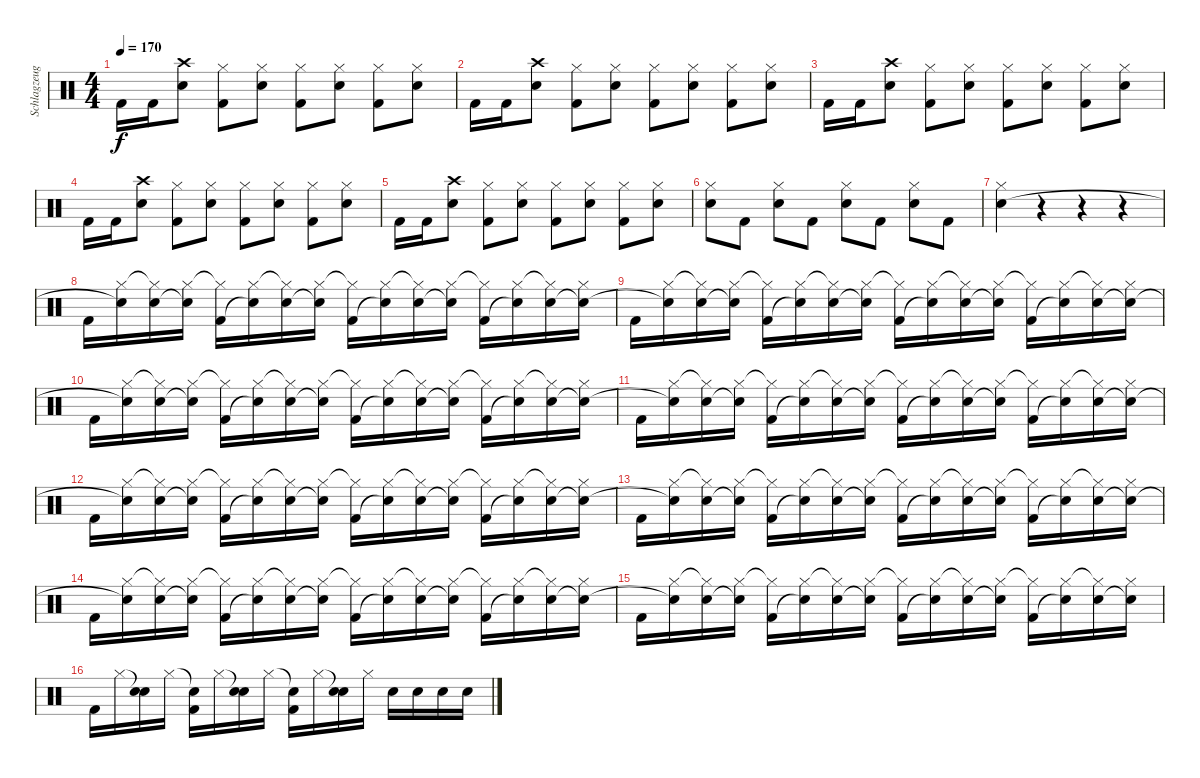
\track ("Schlagzeug (Bela)" "Schlagzeug") {instrument percussion}
\staff {score}
\articulation defaults
\ts (4 4)
\tempo 170
\clef neutral
\ks c "Kick (hit) 2".16{dy f} "Kick (hit) 2".16
("Snare (hit) 2" "Crash high (hit)").8 ("Hi-Hat (closed)" "Kick (hit) 2").8 ("Hi-Hat (closed)" "Snare (hit) 2").8 ("Hi-Hat (closed)" "Kick (hit) 2").8 ("Hi-Hat (closed)" "Snare (hit) 2").8 ("Hi-Hat (closed)" "Kick (hit) 2").8 ("Hi-Hat (closed)" "Snare (hit) 2").8 |
"Kick (hit) 2".16 "Kick (hit) 2".16 ("Snare (hit) 2" "Crash high (hit)").8 ("Hi-Hat (closed)" "Kick (hit) 2").8 ("Hi-Hat (closed)" "Snare (hit) 2").8 ("Hi-Hat (closed)" "Kick (hit) 2").8 ("Hi-Hat (closed)" "Snare (hit) 2").8 ("Hi-Hat (closed)" "Kick (hit) 2").8 ("Hi-Hat (closed)" "Snare (hit) 2").8 |
"Kick (hit) 2".16 "Kick (hit) 2".16 ("Snare (hit) 2" "Crash high (hit)").8 ("Hi-Hat (closed)" "Kick (hit) 2").8 ("Hi-Hat (closed)" "Snare (hit) 2").8 ("Hi-Hat (closed)" "Kick (hit) 2").8 ("Hi-Hat (closed)" "Snare (hit) 2").8 ("Hi-Hat (closed)" "Kick (hit) 2").8 ("Hi-Hat (closed)" "Snare (hit) 2").8 |
"Kick (hit) 2".16 "Kick (hit) 2".16 ("Snare (hit) 2" "Crash high (hit)").8 ("Hi-Hat (closed)" "Kick (hit) 2").8 ("Hi-Hat (closed)" "Snare (hit) 2").8 ("Hi-Hat (closed)" "Kick (hit) 2").8 ("Hi-Hat (closed)" "Snare (hit) 2").8 ("Hi-Hat (closed)" "Kick (hit) 2").8 ("Hi-Hat (closed)" "Snare (hit) 2").8 |
"Kick (hit) 2".16 "Kick (hit) 2".16 ("Snare (hit) 2" "Crash high (hit)").8 ("Hi-Hat (closed)" "Kick (hit) 2").8 ("Hi-Hat (closed)" "Snare (hit) 2").8 ("Hi-Hat (closed)" "Kick (hit) 2").8 ("Hi-Hat (closed)" "Snare (hit) 2").8 ("Hi-Hat (closed)" "Kick (hit) 2").8 ("Hi-Hat (closed)" "Snare (hit) 2").8 |
("Hi-Hat (closed)" "Snare (hit) 2").8 "Kick (hit) 2".8 ("Hi-Hat (closed)" "Snare (hit) 2").8 "Kick (hit) 2".8 ("Hi-Hat (closed)" "Snare (hit) 2").8 "Kick (hit) 2".8 ("Hi-Hat (closed)" "Snare (hit) 2").8 "Kick (hit) 2".8 |
("Hi-Hat (closed)" "Snare (hit) 2").4 r.4 r.4 r.4 |
"Kick (hit) 2".16 ("Hi-Hat (closed)" "Snare (hit)"{t}).16 ("Hi-Hat (closed)"{t} "Snare (hit) 2").16 ("Hi-Hat (closed)" "Snare (hit)"{t}).16 ("Hi-Hat (closed)"{t} "Kick (hit) 2").16 ("Hi-Hat (closed)" "Snare (hit)"{t}).16 ("Hi-Hat (closed)"{t} "Snare (hit) 2").16 ("Hi-Hat (closed)" "Snare (hit)"{t}).16 ("Hi-Hat (closed)"{t} "Kick (hit) 2").16 ("Hi-Hat (closed)" "Snare (hit)"{t}).16 ("Hi-Hat (closed)"{t} "Snare (hit) 2").16 ("Hi-Hat (closed)" "Snare (hit)"{t}).16 ("Hi-Hat (closed)"{t} "Kick (hit) 2").16 ("Hi-Hat (closed)" "Snare (hit)"{t}).16 ("Hi-Hat (closed)"{t} "Snare (hit) 2").16 ("Hi-Hat (closed)" "Snare (hit)"{t}).16 |
"Kick (hit) 2".16 ("Hi-Hat (closed)" "Snare (hit)"{t}).16 ("Hi-Hat (closed)"{t} "Snare (hit) 2").16 ("Hi-Hat (closed)" "Snare (hit)"{t}).16 ("Hi-Hat (closed)"{t} "Kick (hit) 2").16 ("Hi-Hat (closed)" "Snare (hit)"{t}).16 ("Hi-Hat (closed)"{t} "Snare (hit) 2").16 ("Hi-Hat (closed)" "Snare (hit)"{t}).16 ("Hi-Hat (closed)"{t} "Kick (hit) 2").16 ("Hi-Hat (closed)" "Snare (hit)"{t}).16 ("Hi-Hat (closed)"{t} "Snare (hit) 2").16 ("Hi-Hat (closed)" "Snare (hit)"{t}).16 ("Hi-Hat (closed)"{t} "Kick (hit) 2").16 ("Hi-Hat (closed)" "Snare (hit)"{t}).16 ("Hi-Hat (closed)"{t} "Snare (hit) 2").16 ("Hi-Hat (closed)" "Snare (hit)"{t}).16 |
"Kick (hit) 2".16 ("Hi-Hat (closed)" "Snare (hit)"{t}).16 ("Hi-Hat (closed)"{t} "Snare (hit) 2").16 ("Hi-Hat (closed)" "Snare (hit)"{t}).16 ("Hi-Hat (closed)"{t} "Kick (hit) 2").16 ("Hi-Hat (closed)" "Snare (hit)"{t}).16 ("Hi-Hat (closed)"{t} "Snare (hit) 2").16 ("Hi-Hat (closed)" "Snare (hit)"{t}).16 ("Hi-Hat (closed)"{t} "Kick (hit) 2").16 ("Hi-Hat (closed)" "Snare (hit)"{t}).16 ("Hi-Hat (closed)"{t} "Snare (hit) 2").16 ("Hi-Hat (closed)" "Snare (hit)"{t}).16 ("Hi-Hat (closed)"{t} "Kick (hit) 2").16 ("Hi-Hat (closed)" "Snare (hit)"{t}).16 ("Hi-Hat (closed)"{t} "Snare (hit) 2").16 ("Hi-Hat (closed)" "Snare (hit)"{t}).16 |
"Kick (hit) 2".16 ("Hi-Hat (closed)" "Snare (hit)"{t}).16 ("Hi-Hat (closed)"{t} "Snare (hit) 2").16 ("Hi-Hat (closed)" "Snare (hit)"{t}).16 ("Hi-Hat (closed)"{t} "Kick (hit) 2").16 ("Hi-Hat (closed)" "Snare (hit)"{t}).16 ("Hi-Hat (closed)"{t} "Snare (hit) 2").16 ("Hi-Hat (closed)" "Snare (hit)"{t}).16 ("Hi-Hat (closed)"{t} "Kick (hit) 2").16 ("Hi-Hat (closed)" "Snare (hit)"{t}).16 ("Hi-Hat (closed)"{t} "Snare (hit) 2").16 ("Hi-Hat (closed)" "Snare (hit)"{t}).16 ("Hi-Hat (closed)"{t} "Kick (hit) 2").16 ("Hi-Hat (closed)" "Snare (hit)"{t}).16 ("Hi-Hat (closed)"{t} "Snare (hit) 2").16 ("Hi-Hat (closed)" "Snare (hit)"{t}).16 |
"Kick (hit) 2".16 ("Hi-Hat (closed)" "Snare (hit)"{t}).16 ("Hi-Hat (closed)"{t} "Snare (hit) 2").16 ("Hi-Hat (closed)" "Snare (hit)"{t}).16 ("Hi-Hat (closed)"{t} "Kick (hit) 2").16 ("Hi-Hat (closed)" "Snare (hit)"{t}).16 ("Hi-Hat (closed)"{t} "Snare (hit) 2").16 ("Hi-Hat (closed)" "Snare (hit)"{t}).16 ("Hi-Hat (closed)"{t} "Kick (hit) 2").16 ("Hi-Hat (closed)" "Snare (hit)"{t}).16 ("Hi-Hat (closed)"{t} "Snare (hit) 2").16 ("Hi-Hat (closed)" "Snare (hit)"{t}).16 ("Hi-Hat (closed)"{t} "Kick (hit) 2").16 ("Hi-Hat (closed)" "Snare (hit)"{t}).16 ("Hi-Hat (closed)"{t} "Snare (hit) 2").16 ("Hi-Hat (closed)" "Snare (hit)"{t}).16 |
"Kick (hit) 2".16 ("Hi-Hat (closed)" "Snare (hit)"{t}).16 ("Hi-Hat (closed)"{t} "Snare (hit) 2").16 ("Hi-Hat (closed)" "Snare (hit)"{t}).16 ("Hi-Hat (closed)"{t} "Kick (hit) 2").16 ("Hi-Hat (closed)" "Snare (hit)"{t}).16 ("Hi-Hat (closed)"{t} "Snare (hit) 2").16 ("Hi-Hat (closed)" "Snare (hit)"{t}).16 ("Hi-Hat (closed)"{t} "Kick (hit) 2").16 ("Hi-Hat (closed)" "Snare (hit)"{t}).16 ("Hi-Hat (closed)"{t} "Snare (hit) 2").16 ("Hi-Hat (closed)" "Snare (hit)"{t}).16 ("Hi-Hat (closed)"{t} "Kick (hit) 2").16 ("Hi-Hat (closed)" "Snare (hit)"{t}).16 ("Hi-Hat (closed)"{t} "Snare (hit) 2").16 ("Hi-Hat (closed)" "Snare (hit)"{t}).16 |
"Kick (hit) 2".16 ("Hi-Hat (closed)" "Snare (hit)"{t}).16 ("Hi-Hat (closed)"{t} "Snare (hit) 2").16 ("Hi-Hat (closed)" "Snare (hit)"{t}).16 ("Hi-Hat (closed)"{t} "Kick (hit) 2").16 ("Hi-Hat (closed)" "Snare (hit)"{t}).16 ("Hi-Hat (closed)"{t} "Snare (hit) 2").16 ("Hi-Hat (closed)" "Snare (hit)"{t}).16 ("Hi-Hat (closed)"{t} "Kick (hit) 2").16 ("Hi-Hat (closed)" "Snare (hit)"{t}).16 ("Hi-Hat (closed)"{t} "Snare (hit) 2").16 ("Hi-Hat (closed)" "Snare (hit)"{t}).16 ("Hi-Hat (closed)"{t} "Kick (hit) 2").16 ("Hi-Hat (closed)" "Snare (hit)"{t}).16 ("Hi-Hat (closed)"{t} "Snare (hit) 2").16 ("Hi-Hat (closed)" "Snare (hit)"{t}).16 |
"Kick (hit) 2".16 ("Hi-Hat (closed)" "Snare (hit)"{t}).16 ("Hi-Hat (closed)"{t} "Snare (hit) 2").16 ("Hi-Hat (closed)" "Snare (hit)"{t}).16 ("Hi-Hat (closed)"{t} "Kick (hit) 2").16 ("Hi-Hat (closed)" "Snare (hit)"{t}).16 ("Hi-Hat (closed)"{t} "Snare (hit) 2").16 ("Hi-Hat (closed)" "Snare (hit)"{t}).16 ("Hi-Hat (closed)"{t} "Kick (hit) 2").16 ("Hi-Hat (closed)" "Snare (hit)"{t}).16 ("Hi-Hat (closed)"{t} "Snare (hit) 2").16 ("Hi-Hat (closed)" "Snare (hit)"{t}).16 ("Hi-Hat (closed)"{t} "Kick (hit) 2").16 ("Hi-Hat (closed)" "Snare (hit)"{t}).16 ("Hi-Hat (closed)"{t} "Snare (hit) 2").16 ("Hi-Hat (closed)" "Snare (hit)"{t}).16 |
"Kick (hit) 2".16 "Hi-Hat (closed)".16 ("Snare (hit)"{t} "Snare (hit) 2").16 "Hi-Hat (closed)".16 ("Snare (hit)"{t} "Kick (hit) 2").16 "Hi-Hat (closed)".16 ("Snare (hit)"{t} "Snare (hit) 2").16 "Hi-Hat (closed)".16 ("Snare (hit)"{t} "Kick (hit) 2").16 "Hi-Hat (closed)".16 ("Snare (hit)"{t} "Snare (hit) 2").16 "Hi-Hat (closed)".16 "Snare (hit) 2".16 "Snare (hit) 2".16 "Snare (hit) 2".16 "Snare (hit) 2".16
